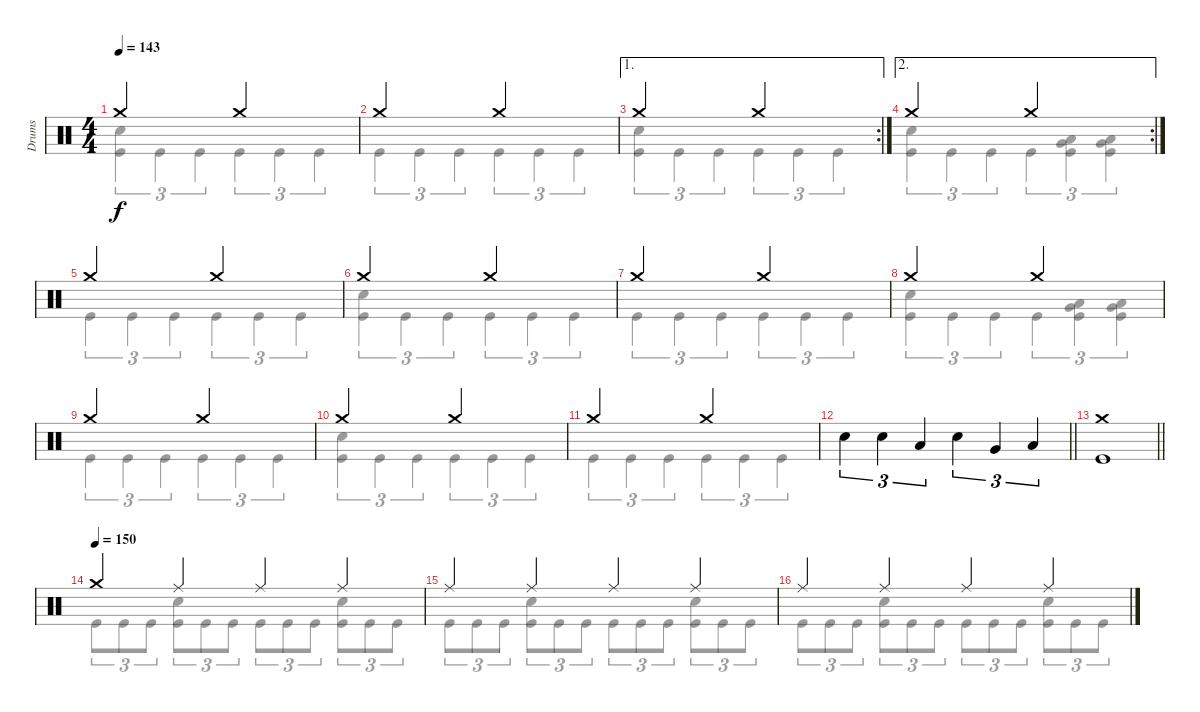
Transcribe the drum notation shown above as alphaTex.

\track ("Drums" "Drums") {instrument percussion}
\staff {score}
\articulation defaults
\voice
\ts (4 4)
\tempo 143
\clef neutral
\ks c "Crash medium (hit)".2{dy f} "Crash medium (hit)".2
|
"Crash medium (hit)".2 "Crash medium (hit)".2 |
\ae 1
\rc 2 "Crash medium (hit)".2 "Crash medium (hit)".2
|
\ae 2
\rc 2 "Crash medium (hit)".2 "Crash medium (hit)".2
|
"Crash medium (hit)".2 "Crash medium (hit)".2 |
"Crash medium (hit)".2 "Crash medium (hit)".2 |
"Crash medium (hit)".2 "Crash medium (hit)".2 |
"Crash medium (hit)".2 "Crash medium (hit)".2 |
"Crash medium (hit)".2 "Crash medium (hit)".2 |
"Crash medium (hit)".2 "Crash medium (hit)".2 |
"Crash medium (hit)".2 "Crash medium (hit)".2 |
\barLineRight lightlight "Electric Snare (hit)".4{tu (3 2)} "Electric Snare (hit)".4{tu (3 2)} "Low Tom (hit)".4{tu (3 2)} "Electric Snare (hit)".4{tu (3 2)} "Very Low Tom (hit)".4{tu (3 2)} "Low Floor Tom (hit)".4{tu (3 2)}
|
\section ("" "")
\barLineRight lightlight
("Crash medium (hit)" "Kick (hit)").1 |
\section ("" "")
\tempo (150)
"Crash medium (hit)".4 "Ride (middle)".4 "Ride (middle)".4 "Ride (middle)".4 |
"Ride (middle)".4 "Ride (middle)".4 "Ride (middle)".4 "Ride (middle)".4 |
"Ride (middle)".4 "Ride (middle)".4 "Ride (middle)".4 "Ride (middle)".4
\voice
\clef neutral
\ottava regular
\simile none
\ks c
("Kick (hit)" "Electric Snare (hit)").4{tu (3 2) dy f} "Kick (hit)".4{tu (3 2)} "Kick (hit)".4{tu (3 2)} "Kick (hit)".4{tu (3 2)} "Kick (hit)".4{tu (3 2)} "Kick (hit)".4{tu (3 2)} |
"Kick (hit)".4{tu (3 2)} "Kick (hit)".4{tu (3 2)} "Kick (hit)".4{tu (3 2)} "Kick (hit)".4{tu (3 2)} "Kick (hit)".4{tu (3 2)} "Kick (hit)".4{tu (3 2)} |
("Kick (hit)" "Electric Snare (hit)").4{tu (3 2)} "Kick (hit)".4{tu (3 2)} "Kick (hit)".4{tu (3 2)} "Kick (hit)".4{tu (3 2)} "Kick (hit)".4{tu (3 2)} "Kick (hit)".4{tu (3 2)} |
("Kick (hit)" "Electric Snare (hit)").4{tu (3 2)} "Kick (hit)".4{tu (3 2)} "Kick (hit)".4{tu (3 2)} "Kick (hit)".4{tu (3 2)} ("Very Low Tom (hit)" "Low Floor Tom (hit)" "Kick (hit)").4{tu (3 2)} ("Very Low Tom (hit)" "Low Floor Tom (hit)" "Kick (hit)").4{tu (3 2)} |
"Kick (hit)".4{tu (3 2)} "Kick (hit)".4{tu (3 2)} "Kick (hit)".4{tu (3 2)} "Kick (hit)".4{tu (3 2)} "Kick (hit)".4{tu (3 2)} "Kick (hit)".4{tu (3 2)} |
("Kick (hit)" "Electric Snare (hit)").4{tu (3 2)} "Kick (hit)".4{tu (3 2)} "Kick (hit)".4{tu (3 2)} "Kick (hit)".4{tu (3 2)} "Kick (hit)".4{tu (3 2)} "Kick (hit)".4{tu (3 2)} |
"Kick (hit)".4{tu (3 2)} "Kick (hit)".4{tu (3 2)} "Kick (hit)".4{tu (3 2)} "Kick (hit)".4{tu (3 2)} "Kick (hit)".4{tu (3 2)} "Kick (hit)".4{tu (3 2)} |
("Kick (hit)" "Electric Snare (hit)").4{tu (3 2)} "Kick (hit)".4{tu (3 2)} "Kick (hit)".4{tu (3 2)} "Kick (hit)".4{tu (3 2)} ("Very Low Tom (hit)" "Low Floor Tom (hit)" "Kick (hit)").4{tu (3 2)} ("Very Low Tom (hit)" "Low Floor Tom (hit)" "Kick (hit)").4{tu (3 2)} |
"Kick (hit)".4{tu (3 2)} "Kick (hit)".4{tu (3 2)} "Kick (hit)".4{tu (3 2)} "Kick (hit)".4{tu (3 2)} "Kick (hit)".4{tu (3 2)} "Kick (hit)".4{tu (3 2)} |
("Kick (hit)" "Electric Snare (hit)").4{tu (3 2)} "Kick (hit)".4{tu (3 2)} "Kick (hit)".4{tu (3 2)} "Kick (hit)".4{tu (3 2)} "Kick (hit)".4{tu (3 2)} "Kick (hit)".4{tu (3 2)} |
"Kick (hit)".4{tu (3 2)} "Kick (hit)".4{tu (3 2)} "Kick (hit)".4{tu (3 2)} "Kick (hit)".4{tu (3 2)} "Kick (hit)".4{tu (3 2)} "Kick (hit)".4{tu (3 2)} |
\barLineRight lightlight
|
\barLineRight lightlight
|
"Kick (hit)".8{tu (3 2)} "Kick (hit)".8{tu (3 2)} "Kick (hit)".8{tu (3 2)} ("Electric Snare (hit)" "Kick (hit)").8{tu (3 2)} "Kick (hit)".8{tu (3 2)} "Kick (hit)".8{tu (3 2)} "Kick (hit)".8{tu (3 2)} "Kick (hit)".8{tu (3 2)} "Kick (hit)".8{tu (3 2)} ("Electric Snare (hit)" "Kick (hit)").8{tu (3 2)} "Kick (hit)".8{tu (3 2)} "Kick (hit)".8{tu (3 2)} |
"Kick (hit)".8{tu (3 2)} "Kick (hit)".8{tu (3 2)} "Kick (hit)".8{tu (3 2)} ("Electric Snare (hit)" "Kick (hit)").8{tu (3 2)} "Kick (hit)".8{tu (3 2)} "Kick (hit)".8{tu (3 2)} "Kick (hit)".8{tu (3 2)} "Kick (hit)".8{tu (3 2)} "Kick (hit)".8{tu (3 2)} ("Electric Snare (hit)" "Kick (hit)").8{tu (3 2)} "Kick (hit)".8{tu (3 2)} "Kick (hit)".8{tu (3 2)} |
"Kick (hit)".8{tu (3 2)} "Kick (hit)".8{tu (3 2)} "Kick (hit)".8{tu (3 2)} ("Electric Snare (hit)" "Kick (hit)").8{tu (3 2)} "Kick (hit)".8{tu (3 2)} "Kick (hit)".8{tu (3 2)} "Kick (hit)".8{tu (3 2)} "Kick (hit)".8{tu (3 2)} "Kick (hit)".8{tu (3 2)} ("Electric Snare (hit)" "Kick (hit)").8{tu (3 2)} "Kick (hit)".8{tu (3 2)} "Kick (hit)".8{tu (3 2)}
